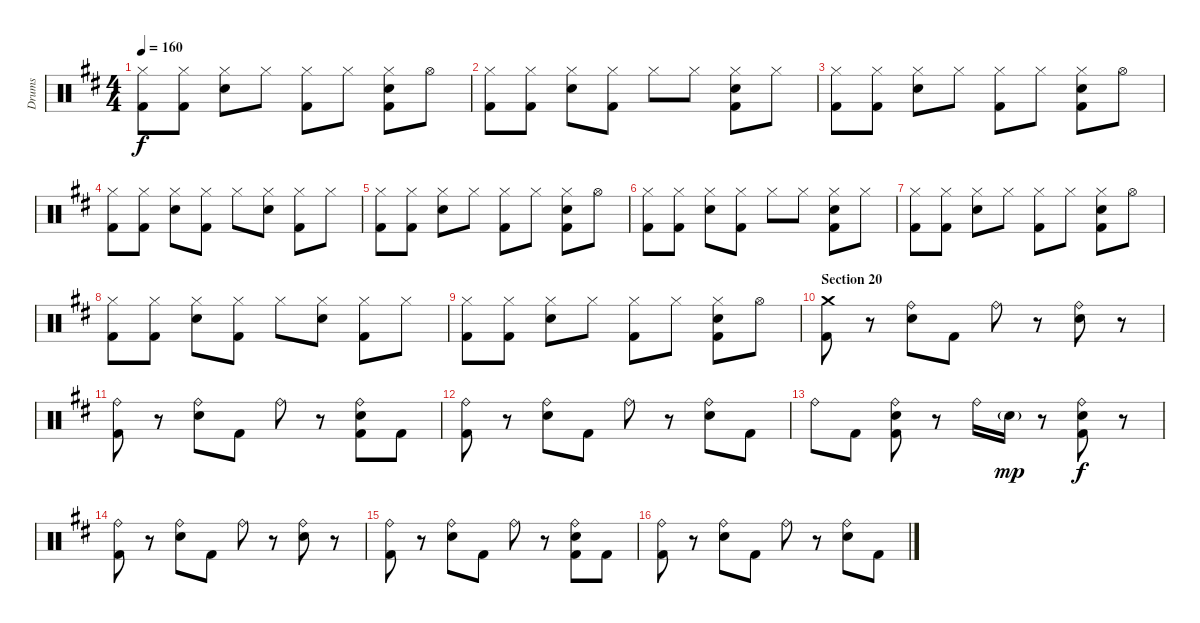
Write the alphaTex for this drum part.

\track ("Drums" "Drums") {instrument percussion}
\staff {score}
\articulation defaults
\ts (4 4)
\tempo 160
\clef neutral
\ks bminor
("Hi-Hat (closed)" "Kick (hit) 2").8{dy f} ("Hi-Hat (closed)" "Kick (hit) 2").8 ("Hi-Hat (closed)" "Snare (hit) 2").8 "Hi-Hat (closed)".8 ("Hi-Hat (closed)" "Kick (hit) 2").8 "Hi-Hat (closed)".8 ("Hi-Hat (closed)" "Snare (hit) 2" "Kick (hit) 2").8 "Hi-Hat (open)".8 |
("Hi-Hat (closed)" "Kick (hit) 2").8 ("Hi-Hat (closed)" "Kick (hit) 2").8 ("Hi-Hat (closed)" "Snare (hit) 2").8 ("Hi-Hat (closed)" "Kick (hit) 2").8 "Hi-Hat (closed)".8 "Hi-Hat (closed)".8 ("Hi-Hat (closed)" "Snare (hit) 2" "Kick (hit) 2").8 "Hi-Hat (closed)".8 |
("Hi-Hat (closed)" "Kick (hit) 2").8 ("Hi-Hat (closed)" "Kick (hit) 2").8 ("Hi-Hat (closed)" "Snare (hit) 2").8 "Hi-Hat (closed)".8 ("Hi-Hat (closed)" "Kick (hit) 2").8 "Hi-Hat (closed)".8 ("Hi-Hat (closed)" "Snare (hit) 2" "Kick (hit) 2").8 "Hi-Hat (open)".8 |
("Hi-Hat (closed)" "Kick (hit) 2").8 ("Hi-Hat (closed)" "Kick (hit) 2").8 ("Hi-Hat (closed)" "Snare (hit) 2").8 ("Hi-Hat (closed)" "Kick (hit) 2").8 "Hi-Hat (closed)".8 ("Hi-Hat (closed)" "Snare (hit) 2").8 ("Hi-Hat (closed)" "Kick (hit) 2").8 "Hi-Hat (closed)".8 |
("Hi-Hat (closed)" "Kick (hit) 2").8 ("Hi-Hat (closed)" "Kick (hit) 2").8 ("Hi-Hat (closed)" "Snare (hit) 2").8 "Hi-Hat (closed)".8 ("Hi-Hat (closed)" "Kick (hit) 2").8 "Hi-Hat (closed)".8 ("Hi-Hat (closed)" "Snare (hit) 2" "Kick (hit) 2").8 "Hi-Hat (open)".8 |
("Hi-Hat (closed)" "Kick (hit) 2").8 ("Hi-Hat (closed)" "Kick (hit) 2").8 ("Hi-Hat (closed)" "Snare (hit) 2").8 ("Hi-Hat (closed)" "Kick (hit) 2").8 "Hi-Hat (closed)".8 "Hi-Hat (closed)".8 ("Hi-Hat (closed)" "Snare (hit) 2" "Kick (hit) 2").8 "Hi-Hat (closed)".8 |
("Hi-Hat (closed)" "Kick (hit) 2").8 ("Hi-Hat (closed)" "Kick (hit) 2").8 ("Hi-Hat (closed)" "Snare (hit) 2").8 "Hi-Hat (closed)".8 ("Hi-Hat (closed)" "Kick (hit) 2").8 "Hi-Hat (closed)".8 ("Hi-Hat (closed)" "Snare (hit) 2" "Kick (hit) 2").8 "Hi-Hat (open)".8 |
("Hi-Hat (closed)" "Kick (hit) 2").8 ("Hi-Hat (closed)" "Kick (hit) 2").8 ("Hi-Hat (closed)" "Snare (hit) 2").8 ("Hi-Hat (closed)" "Kick (hit) 2").8 "Hi-Hat (closed)".8 ("Hi-Hat (closed)" "Snare (hit) 2").8 ("Hi-Hat (closed)" "Kick (hit) 2").8 "Hi-Hat (closed)".8 |
("Hi-Hat (closed)" "Kick (hit) 2").8 ("Hi-Hat (closed)" "Kick (hit) 2").8 ("Hi-Hat (closed)" "Snare (hit) 2").8 "Hi-Hat (closed)".8 ("Hi-Hat (closed)" "Kick (hit) 2").8 "Hi-Hat (closed)".8 ("Hi-Hat (closed)" "Snare (hit) 2" "Kick (hit) 2").8 "Hi-Hat (open)".8 |
\section ("" "Section 20")
("Crash medium (hit)" "Kick (hit) 2").8 r.8 ("Ride (bell)" "Snare (hit) 2").8 "Kick (hit) 2".8 "Ride (bell)".8 r.8 ("Ride (bell)" "Snare (hit) 2").8 r.8 |
("Ride (bell)" "Kick (hit) 2").8 r.8 ("Ride (bell)" "Snare (hit) 2").8 "Kick (hit) 2".8 "Ride (bell)".8 r.8 ("Ride (bell)" "Snare (hit) 2" "Kick (hit) 2").8 "Kick (hit) 2".8 |
("Ride (bell)" "Kick (hit) 2").8 r.8 ("Ride (bell)" "Snare (hit) 2").8 "Kick (hit) 2".8 "Ride (bell)".8 r.8 ("Ride (bell)" "Snare (hit) 2").8 "Kick (hit) 2".8 |
"Ride (bell)".8 "Kick (hit) 2".8 ("Ride (bell)" "Snare (hit) 2" "Kick (hit) 2").8 r.8 "Ride (bell)".16 "Snare (hit) 2"{g}.16{dy mp} r.8 ("Ride (bell)" "Snare (hit) 2" "Kick (hit) 2").8{dy f} r.8 |
("Ride (bell)" "Kick (hit) 2").8 r.8 ("Ride (bell)" "Snare (hit) 2").8 "Kick (hit) 2".8 "Ride (bell)".8 r.8 ("Ride (bell)" "Snare (hit) 2").8 r.8 |
("Ride (bell)" "Kick (hit) 2").8 r.8 ("Ride (bell)" "Snare (hit) 2").8 "Kick (hit) 2".8 "Ride (bell)".8 r.8 ("Ride (bell)" "Snare (hit) 2" "Kick (hit) 2").8 "Kick (hit) 2".8 |
("Ride (bell)" "Kick (hit) 2").8 r.8 ("Ride (bell)" "Snare (hit) 2").8 "Kick (hit) 2".8 "Ride (bell)".8 r.8 ("Ride (bell)" "Snare (hit) 2").8 "Kick (hit) 2".8
